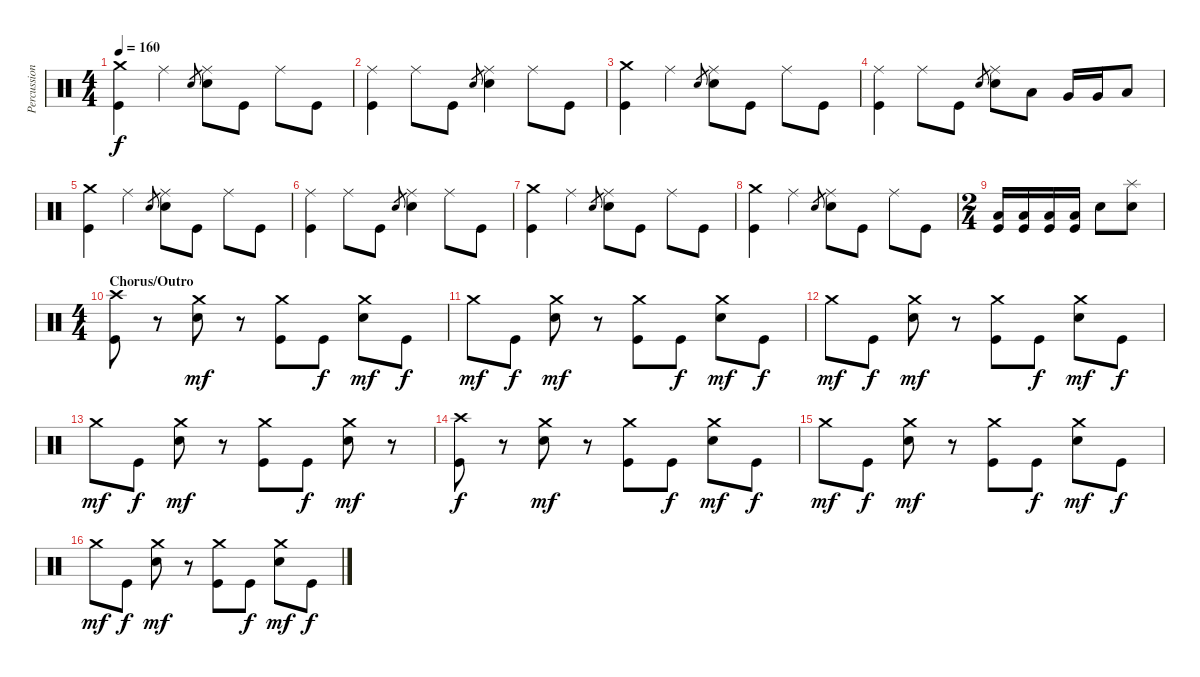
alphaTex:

\track ("Percussion" "Percussion") {instrument percussion}
\staff {score}
\articulation defaults
\ts (4 4)
\tempo 160
\clef neutral
\ks c
("Crash medium (hit)" "Kick (hit)").4{dy f} "Ride (middle)".4 "Electric Snare (hit)".8{gr} ("Ride (middle)" "Electric Snare (hit)").8 "Kick (hit)".8 "Ride (middle)".8 "Kick (hit)".8 |
("Ride (middle)" "Kick (hit)").4 "Ride (middle)".8 "Kick (hit)".8 "Electric Snare (hit)".8{gr} ("Ride (middle)" "Electric Snare (hit)").4 "Ride (middle)".8 "Kick (hit)".8 |
("Crash medium (hit)" "Kick (hit)").4 "Ride (middle)".4 "Electric Snare (hit)".8{gr} ("Ride (middle)" "Electric Snare (hit)").8 "Kick (hit)".8 "Ride (middle)".8 "Kick (hit)".8 |
("Ride (middle)" "Kick (hit)").4 "Ride (middle)".8 "Kick (hit)".8 "Electric Snare (hit)".8{gr} ("Ride (middle)" "Electric Snare (hit)").8 "Low Tom (hit)".8 "Very Low Tom (hit)".16 "Very Low Tom (hit)".16 "Low Floor Tom (hit)".8 |
("Crash medium (hit)" "Kick (hit)").4 "Ride (middle)".4 "Electric Snare (hit)".8{gr} ("Ride (middle)" "Electric Snare (hit)").8 "Kick (hit)".8 "Ride (middle)".8 "Kick (hit)".8 |
("Ride (middle)" "Kick (hit)").4 "Ride (middle)".8 "Kick (hit)".8 "Electric Snare (hit)".8{gr} ("Ride (middle)" "Electric Snare (hit)").4 "Ride (middle)".8 "Kick (hit)".8 |
("Crash medium (hit)" "Kick (hit)").4 "Ride (middle)".4 "Electric Snare (hit)".8{gr} ("Ride (middle)" "Electric Snare (hit)").8 "Kick (hit)".8 "Ride (middle)".8 "Kick (hit)".8 |
("Crash medium (hit)" "Kick (hit)").4 "Ride (middle)".4 "Electric Snare (hit)".8{gr} ("Ride (middle)" "Electric Snare (hit)").8 "Kick (hit)".8 "Ride (middle)".8 "Kick (hit)".8 |
\ts (2 4)
("Low Floor Tom (hit)" "Kick (hit)").16 ("Low Floor Tom (hit)" "Kick (hit)").16 ("Low Floor Tom (hit)" "Kick (hit)").16 ("Low Floor Tom (hit)" "Kick (hit)").16 "Electric Snare (hit)".8 ("Electric Snare (hit)" "Splash (hit)").8 |
\ts (4 4)
\section ("" "Chorus/Outro")
("Kick (hit)" "Crash high (hit)").8 r.8 ("Electric Snare (hit)" "Crash medium (hit)").8{dy mf} r.8 ("Kick (hit)" "Crash medium (hit)").8 "Kick (hit)".8{dy f} ("Electric Snare (hit)" "Crash medium (hit)").8{dy mf} "Kick (hit)".8{dy f} |
"Crash medium (hit)".8{dy mf} "Kick (hit)".8{dy f} ("Electric Snare (hit)" "Crash medium (hit)").8{dy mf} r.8 ("Kick (hit)" "Crash medium (hit)").8 "Kick (hit)".8{dy f} ("Electric Snare (hit)" "Crash medium (hit)").8{dy mf} "Kick (hit)".8{dy f} |
"Crash medium (hit)".8{dy mf} "Kick (hit)".8{dy f} ("Electric Snare (hit)" "Crash medium (hit)").8{dy mf} r.8 ("Kick (hit)" "Crash medium (hit)").8 "Kick (hit)".8{dy f} ("Electric Snare (hit)" "Crash medium (hit)").8{dy mf} "Kick (hit)".8{dy f} |
"Crash medium (hit)".8{dy mf} "Kick (hit)".8{dy f} ("Electric Snare (hit)" "Crash medium (hit)").8{dy mf} r.8 ("Kick (hit)" "Crash medium (hit)").8 "Kick (hit)".8{dy f} ("Electric Snare (hit)" "Crash medium (hit)").8{dy mf} r.8 |
("Kick (hit)" "Crash high (hit)").8{dy f} r.8 ("Electric Snare (hit)" "Crash medium (hit)").8{dy mf} r.8 ("Kick (hit)" "Crash medium (hit)").8 "Kick (hit)".8{dy f} ("Electric Snare (hit)" "Crash medium (hit)").8{dy mf} "Kick (hit)".8{dy f} |
"Crash medium (hit)".8{dy mf} "Kick (hit)".8{dy f} ("Electric Snare (hit)" "Crash medium (hit)").8{dy mf} r.8 ("Kick (hit)" "Crash medium (hit)").8 "Kick (hit)".8{dy f} ("Electric Snare (hit)" "Crash medium (hit)").8{dy mf} "Kick (hit)".8{dy f} |
"Crash medium (hit)".8{dy mf} "Kick (hit)".8{dy f} ("Electric Snare (hit)" "Crash medium (hit)").8{dy mf} r.8 ("Kick (hit)" "Crash medium (hit)").8 "Kick (hit)".8{dy f} ("Electric Snare (hit)" "Crash medium (hit)").8{dy mf} "Kick (hit)".8{dy f}
